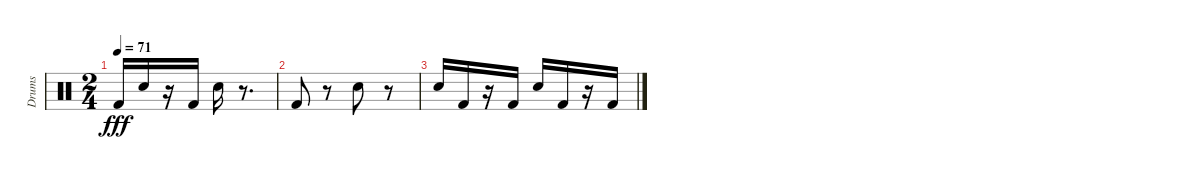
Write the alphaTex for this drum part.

\track ("Drums" "Drums") {instrument percussion}
\staff {score}
\articulation defaults
\ts (2 4)
\tempo 71
\clef neutral
\ks c "Kick (hit) 2".16{dy fff volume 3} "Electric Snare (hit)".16{volume 2}
r.16 "Kick (hit) 2".16{volume 1} "Snare (hit) 2".16{volume 1} r.8{d} |
"Kick (hit) 2".8{volume 0} r.8 "Snare (hit) 2".8 r.8 |
"Electric Snare (hit)".16 "Kick (hit) 2".16 r.16 "Kick (hit) 2".16 "Snare (hit) 2".16 "Kick (hit) 2".16 r.16 "Kick (hit) 2".16
